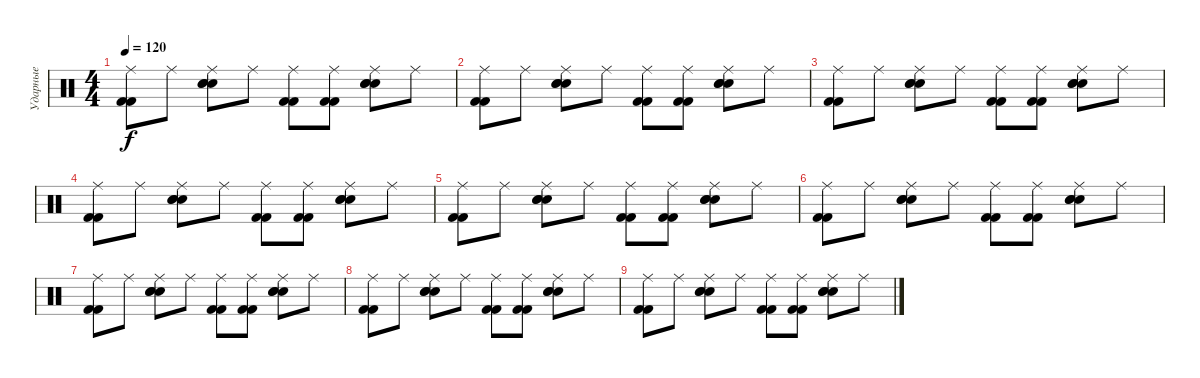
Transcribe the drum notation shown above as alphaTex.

\track ("Ударные" "Ударные") {instrument percussion}
\staff {score}
\articulation defaults
\ts (4 4)
\tempo 120
\clef neutral
\ks c
("Ride (middle)" "Kick (hit) 2" "Kick (hit) 2").8{dy f} "Ride (middle)".8 ("Ride (middle)" "Snare (hit) 2" "Snare (hit) 2" "Snare (hit) 2").8 "Ride (middle)".8 ("Ride (middle)" "Kick (hit) 2" "Kick (hit) 2").8 ("Ride (middle)" "Kick (hit) 2" "Kick (hit) 2").8 ("Ride (middle)" "Snare (hit) 2" "Snare (hit) 2" "Snare (hit) 2").8 "Ride (middle)".8 |
("Ride (middle)" "Kick (hit) 2" "Kick (hit) 2").8 "Ride (middle)".8 ("Ride (middle)" "Snare (hit) 2" "Snare (hit) 2" "Snare (hit) 2").8 "Ride (middle)".8 ("Ride (middle)" "Kick (hit) 2" "Kick (hit) 2").8 ("Ride (middle)" "Kick (hit) 2" "Kick (hit) 2").8 ("Ride (middle)" "Snare (hit) 2" "Snare (hit) 2" "Snare (hit) 2").8 "Ride (middle)".8 |
("Ride (middle)" "Kick (hit) 2" "Kick (hit) 2").8 "Ride (middle)".8 ("Ride (middle)" "Snare (hit) 2" "Snare (hit) 2" "Snare (hit) 2").8 "Ride (middle)".8 ("Ride (middle)" "Kick (hit) 2" "Kick (hit) 2").8 ("Ride (middle)" "Kick (hit) 2" "Kick (hit) 2").8 ("Ride (middle)" "Snare (hit) 2" "Snare (hit) 2" "Snare (hit) 2").8 "Ride (middle)".8 |
("Ride (middle)" "Kick (hit) 2" "Kick (hit) 2").8 "Ride (middle)".8 ("Ride (middle)" "Snare (hit) 2" "Snare (hit) 2" "Snare (hit) 2").8 "Ride (middle)".8 ("Ride (middle)" "Kick (hit) 2" "Kick (hit) 2").8 ("Ride (middle)" "Kick (hit) 2" "Kick (hit) 2").8 ("Ride (middle)" "Snare (hit) 2" "Snare (hit) 2" "Snare (hit) 2").8 "Ride (middle)".8 |
("Ride (middle)" "Kick (hit) 2" "Kick (hit) 2").8 "Ride (middle)".8 ("Ride (middle)" "Snare (hit) 2" "Snare (hit) 2" "Snare (hit) 2").8 "Ride (middle)".8 ("Ride (middle)" "Kick (hit) 2" "Kick (hit) 2").8 ("Ride (middle)" "Kick (hit) 2" "Kick (hit) 2").8 ("Ride (middle)" "Snare (hit) 2" "Snare (hit) 2" "Snare (hit) 2").8 "Ride (middle)".8 |
("Ride (middle)" "Kick (hit) 2" "Kick (hit) 2").8 "Ride (middle)".8 ("Ride (middle)" "Snare (hit) 2" "Snare (hit) 2" "Snare (hit) 2").8 "Ride (middle)".8 ("Ride (middle)" "Kick (hit) 2" "Kick (hit) 2").8 ("Ride (middle)" "Kick (hit) 2" "Kick (hit) 2").8 ("Ride (middle)" "Snare (hit) 2" "Snare (hit) 2" "Snare (hit) 2").8 "Ride (middle)".8 |
("Ride (middle)" "Kick (hit) 2" "Kick (hit) 2").8 "Ride (middle)".8 ("Ride (middle)" "Snare (hit) 2" "Snare (hit) 2" "Snare (hit) 2").8 "Ride (middle)".8 ("Ride (middle)" "Kick (hit) 2" "Kick (hit) 2").8 ("Ride (middle)" "Kick (hit) 2" "Kick (hit) 2").8 ("Ride (middle)" "Snare (hit) 2" "Snare (hit) 2" "Snare (hit) 2").8 "Ride (middle)".8 |
("Ride (middle)" "Kick (hit) 2" "Kick (hit) 2").8 "Ride (middle)".8 ("Ride (middle)" "Snare (hit) 2" "Snare (hit) 2" "Snare (hit) 2").8 "Ride (middle)".8 ("Ride (middle)" "Kick (hit) 2" "Kick (hit) 2").8 ("Ride (middle)" "Kick (hit) 2" "Kick (hit) 2").8 ("Ride (middle)" "Snare (hit) 2" "Snare (hit) 2" "Snare (hit) 2").8 "Ride (middle)".8 |
("Ride (middle)" "Kick (hit) 2" "Kick (hit) 2").8 "Ride (middle)".8 ("Ride (middle)" "Snare (hit) 2" "Snare (hit) 2" "Snare (hit) 2").8 "Ride (middle)".8 ("Ride (middle)" "Kick (hit) 2" "Kick (hit) 2").8 ("Ride (middle)" "Kick (hit) 2" "Kick (hit) 2").8 ("Ride (middle)" "Snare (hit) 2" "Snare (hit) 2" "Snare (hit) 2").8 "Ride (middle)".8
